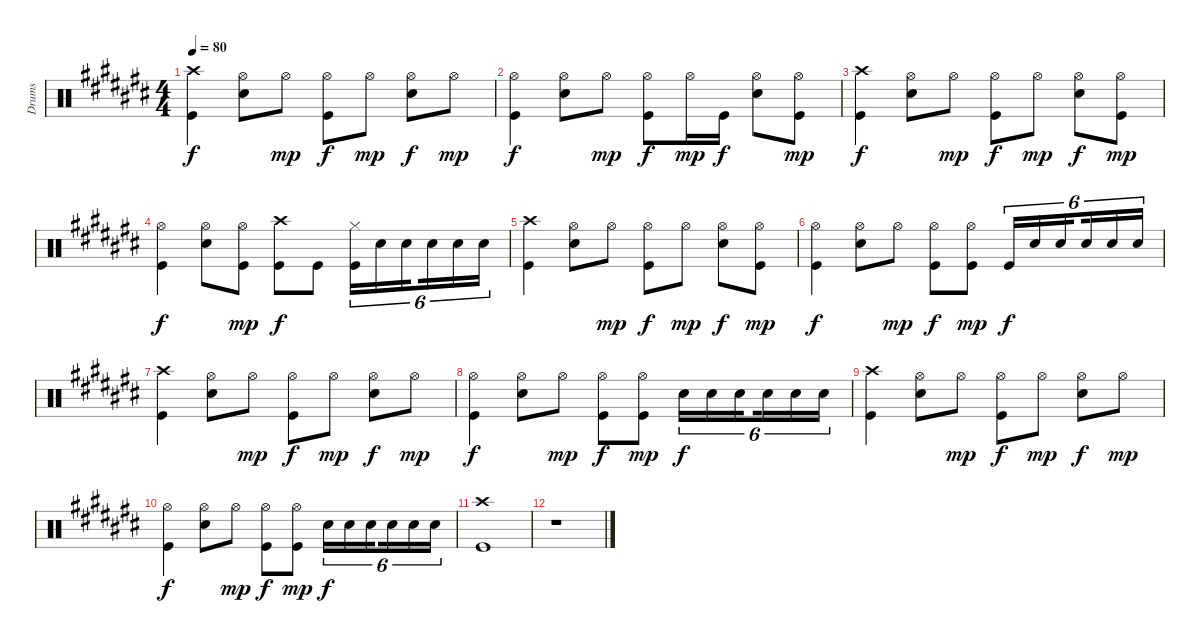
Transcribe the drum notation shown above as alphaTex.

\track ("Drums" "Drums") {instrument percussion}
\staff {score}
\articulation defaults
\ts (4 4)
\tempo 80
\clef neutral
\ks c#
("Crash high (hit)" "Kick (hit)").4{dy f} ("Hi-Hat (open)" "Snare (hit) 2").8 "Hi-Hat (open)".8{dy mp} ("Hi-Hat (open)" "Kick (hit)").8{dy f} "Hi-Hat (open)".8{dy mp} ("Hi-Hat (open)" "Snare (hit) 2").8{dy f} "Hi-Hat (open)".8{dy mp} |
("Hi-Hat (open)" "Kick (hit)").4{dy f} ("Hi-Hat (open)" "Snare (hit) 2").8 "Hi-Hat (open)".8{dy mp} ("Hi-Hat (open)" "Kick (hit)").8{dy f} "Hi-Hat (open)".16{dy mp} "Kick (hit)".16{dy f} ("Hi-Hat (open)" "Snare (hit) 2").8 ("Hi-Hat (open)" "Kick (hit)").8{dy mp} |
("Crash high (hit)" "Kick (hit)").4{dy f} ("Hi-Hat (open)" "Snare (hit) 2").8 "Hi-Hat (open)".8{dy mp} ("Hi-Hat (open)" "Kick (hit)").8{dy f} "Hi-Hat (open)".8{dy mp} ("Hi-Hat (open)" "Snare (hit) 2").8{dy f} ("Hi-Hat (open)" "Kick (hit)").8{dy mp} |
("Hi-Hat (open)" "Kick (hit)").4{dy f} ("Hi-Hat (open)" "Snare (hit) 2").8 ("Hi-Hat (open)" "Kick (hit)").8{dy mp} ("Crash high (hit)" "Kick (hit)").8{dy f} "Kick (hit)".8 ("Hi-Hat (closed)" "Kick (hit)").16{tu (6 4)} "Snare (hit) 2".16{tu (6 4)} "Snare (hit) 2".16{tu (6 4) beam splitsecondary} "Snare (hit) 2".16{tu (6 4)} "Snare (hit) 2".16{tu (6 4)} "Snare (hit) 2".16{tu (6 4)} |
("Crash high (hit)" "Kick (hit)").4 ("Hi-Hat (open)" "Snare (hit) 2").8 "Hi-Hat (open)".8{dy mp} ("Hi-Hat (open)" "Kick (hit)").8{dy f} "Hi-Hat (open)".8{dy mp} ("Hi-Hat (open)" "Snare (hit) 2").8{dy f} ("Hi-Hat (open)" "Kick (hit)").8{dy mp} |
("Hi-Hat (open)" "Kick (hit)").4{dy f} ("Hi-Hat (open)" "Snare (hit) 2").8 "Hi-Hat (open)".8{dy mp} ("Hi-Hat (open)" "Kick (hit)").8{dy f} ("Hi-Hat (open)" "Kick (hit)").8{dy mp} "Kick (hit)".16{tu (6 4) dy f} "Snare (hit) 2".16{tu (6 4)} "Snare (hit) 2".16{tu (6 4) beam splitsecondary} "Snare (hit) 2".16{tu (6 4)} "Snare (hit) 2".16{tu (6 4)} "Snare (hit) 2".16{tu (6 4)} |
("Crash high (hit)" "Kick (hit)").4 ("Hi-Hat (open)" "Snare (hit) 2").8 "Hi-Hat (open)".8{dy mp} ("Hi-Hat (open)" "Kick (hit)").8{dy f} "Hi-Hat (open)".8{dy mp} ("Hi-Hat (open)" "Snare (hit) 2").8{dy f} "Hi-Hat (open)".8{dy mp} |
("Hi-Hat (open)" "Kick (hit)").4{dy f} ("Hi-Hat (open)" "Snare (hit) 2").8 "Hi-Hat (open)".8{dy mp} ("Hi-Hat (open)" "Kick (hit)").8{dy f} ("Hi-Hat (open)" "Kick (hit)").8{dy mp} "Snare (hit) 2".16{tu (6 4) dy f} "Snare (hit) 2".16{tu (6 4)} "Snare (hit) 2".16{tu (6 4) beam splitsecondary} "Snare (hit) 2".16{tu (6 4)} "Snare (hit) 2".16{tu (6 4)} "Snare (hit) 2".16{tu (6 4)} |
("Crash high (hit)" "Kick (hit)").4 ("Hi-Hat (open)" "Snare (hit) 2").8 "Hi-Hat (open)".8{dy mp} ("Hi-Hat (open)" "Kick (hit)").8{dy f} "Hi-Hat (open)".8{dy mp} ("Hi-Hat (open)" "Snare (hit) 2").8{dy f} "Hi-Hat (open)".8{dy mp} |
("Hi-Hat (open)" "Kick (hit)").4{dy f} ("Hi-Hat (open)" "Snare (hit) 2").8 "Hi-Hat (open)".8{dy mp} ("Hi-Hat (open)" "Kick (hit)").8{dy f} ("Hi-Hat (open)" "Kick (hit)").8{dy mp} "Snare (hit) 2".16{tu (6 4) dy f} "Snare (hit) 2".16{tu (6 4)} "Snare (hit) 2".16{tu (6 4) beam splitsecondary} "Snare (hit) 2".16{tu (6 4)} "Snare (hit) 2".16{tu (6 4)} "Snare (hit) 2".16{tu (6 4)} |
("Crash high (hit)" "Kick (hit)").1 |
r.1
